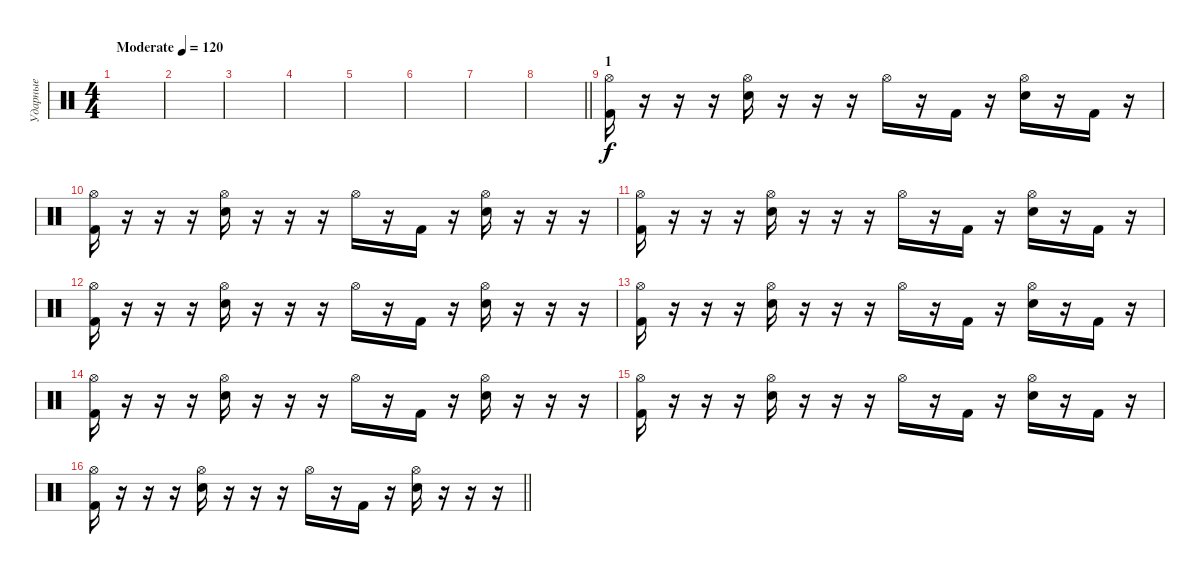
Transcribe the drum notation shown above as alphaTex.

\track ("Ударные" "Ударные") {instrument percussion}
\staff {score}
\articulation defaults
\ts (4 4)
\tempo (120 "Moderate")
\clef neutral
\ks c
|
|
|
|
|
|
|
\barLineRight lightlight
|
\section ("" "1")
("Hi-Hat (open)" "Kick (hit) 2").16 r.16 r.16 r.16 ("Hi-Hat (open)" "Snare (hit) 2").16 r.16 r.16 r.16 "Hi-Hat (open)".16 r.16 "Kick (hit) 2".16 r.16 ("Hi-Hat (open)" "Snare (hit) 2").16 r.16 "Kick (hit) 2".16 r.16 |
("Hi-Hat (open)" "Kick (hit) 2").16 r.16 r.16 r.16 ("Hi-Hat (open)" "Snare (hit) 2").16 r.16 r.16 r.16 "Hi-Hat (open)".16 r.16 "Kick (hit) 2".16 r.16 ("Hi-Hat (open)" "Snare (hit) 2").16 r.16 r.16 r.16 |
("Hi-Hat (open)" "Kick (hit) 2").16 r.16 r.16 r.16 ("Hi-Hat (open)" "Snare (hit) 2").16 r.16 r.16 r.16 "Hi-Hat (open)".16 r.16 "Kick (hit) 2".16 r.16 ("Hi-Hat (open)" "Snare (hit) 2").16 r.16 "Kick (hit) 2".16 r.16 |
("Hi-Hat (open)" "Kick (hit) 2").16 r.16 r.16 r.16 ("Hi-Hat (open)" "Snare (hit) 2").16 r.16 r.16 r.16 "Hi-Hat (open)".16 r.16 "Kick (hit) 2".16 r.16 ("Hi-Hat (open)" "Snare (hit) 2").16 r.16 r.16 r.16 |
("Hi-Hat (open)" "Kick (hit) 2").16 r.16 r.16 r.16 ("Hi-Hat (open)" "Snare (hit) 2").16 r.16 r.16 r.16 "Hi-Hat (open)".16 r.16 "Kick (hit) 2".16 r.16 ("Hi-Hat (open)" "Snare (hit) 2").16 r.16 "Kick (hit) 2".16 r.16 |
("Hi-Hat (open)" "Kick (hit) 2").16 r.16 r.16 r.16 ("Hi-Hat (open)" "Snare (hit) 2").16 r.16 r.16 r.16 "Hi-Hat (open)".16 r.16 "Kick (hit) 2".16 r.16 ("Hi-Hat (open)" "Snare (hit) 2").16 r.16 r.16 r.16 |
("Hi-Hat (open)" "Kick (hit) 2").16 r.16 r.16 r.16 ("Hi-Hat (open)" "Snare (hit) 2").16 r.16 r.16 r.16 "Hi-Hat (open)".16 r.16 "Kick (hit) 2".16 r.16 ("Hi-Hat (open)" "Snare (hit) 2").16 r.16 "Kick (hit) 2".16 r.16 |
\barLineRight lightlight
("Hi-Hat (open)" "Kick (hit) 2").16 r.16 r.16 r.16 ("Hi-Hat (open)" "Snare (hit) 2").16 r.16 r.16 r.16 "Hi-Hat (open)".16 r.16 "Kick (hit) 2".16 r.16 ("Hi-Hat (open)" "Snare (hit) 2").16 r.16 r.16 r.16
